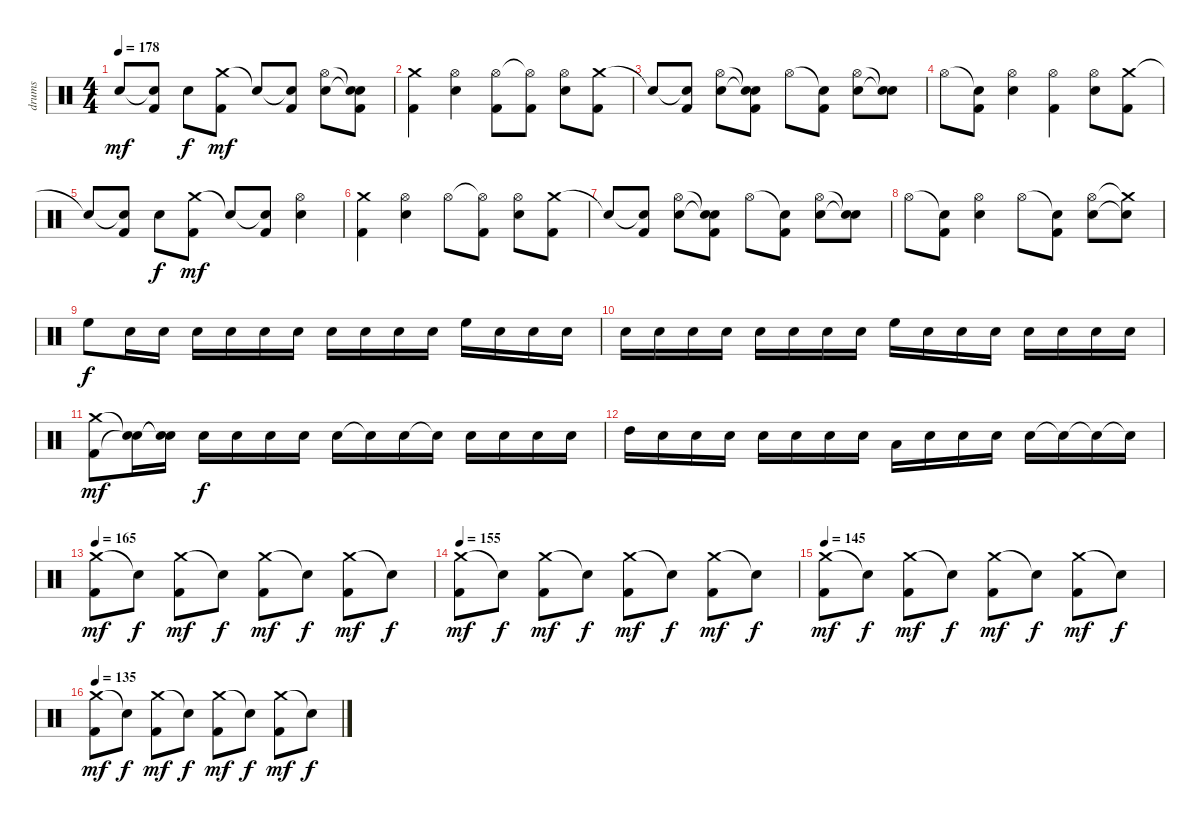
\track ("drums" "drums") {instrument percussion}
\staff {score}
\articulation defaults
\ts (4 4)
\tempo 178
\clef neutral
\ks aminor "Snare (hit)"{t}.8{dy mf}
("Snare (hit)"{t} "Kick (hit) 2").8 "Snare (hit) 2".8{dy f} ("Crash medium (hit)" "Kick (hit) 2").8{dy mf} "Snare (hit)"{t}.8 ("Snare (hit)"{t} "Kick (hit) 2").8 ("Hi-Hat (open)" "Snare (hit) 2").8 ("Snare (hit)"{t} "Snare (hit)"{t} "Kick (hit) 2").8 |
("Crash medium (hit)" "Kick (hit) 2").4 ("Hi-Hat (open)" "Snare (hit) 2").4 ("Hi-Hat (open)" "Kick (hit) 2").8 ("Hi-Hat (open)"{t} "Kick (hit) 2").8 ("Hi-Hat (open)" "Snare (hit) 2").8 ("Crash medium (hit)" "Kick (hit) 2").8 |
"Snare (hit)"{t}.8 ("Snare (hit)"{t} "Kick (hit) 2").8 ("Hi-Hat (open)" "Snare (hit) 2").8 ("Snare (hit)"{t} "Snare (hit)"{t} "Kick (hit) 2").8 "Hi-Hat (open)".8 ("Snare (hit)"{t} "Kick (hit) 2").8 ("Hi-Hat (open)" "Snare (hit) 2").8 ("Snare (hit)"{t} "Snare (hit)"{t}).8 |
"Hi-Hat (open)".8 ("Snare (hit)"{t} "Kick (hit) 2").8 ("Hi-Hat (open)" "Snare (hit) 2").4 ("Hi-Hat (open)" "Kick (hit) 2").4 ("Hi-Hat (open)" "Snare (hit) 2").8 ("Crash medium (hit)" "Kick (hit) 2").8 |
"Snare (hit)"{t}.8 ("Snare (hit)"{t} "Kick (hit) 2").8 "Snare (hit) 2".8{dy f} ("Crash medium (hit)" "Kick (hit) 2").8{dy mf} "Snare (hit)"{t}.8 ("Snare (hit)"{t} "Kick (hit) 2").8 ("Hi-Hat (open)" "Snare (hit) 2").4 |
("Crash medium (hit)" "Kick (hit) 2").4 ("Hi-Hat (open)" "Snare (hit) 2").4 "Hi-Hat (open)".8 ("Hi-Hat (open)"{t} "Kick (hit) 2").8 ("Hi-Hat (open)" "Snare (hit) 2").8 ("Crash medium (hit)" "Kick (hit) 2").8 |
"Snare (hit)"{t}.8 ("Snare (hit)"{t} "Kick (hit) 2").8 ("Hi-Hat (open)" "Snare (hit) 2").8 ("Snare (hit)"{t} "Snare (hit)"{t} "Kick (hit) 2").8 "Hi-Hat (open)".8 ("Snare (hit)"{t} "Kick (hit) 2").8 ("Hi-Hat (open)" "Snare (hit) 2").8 ("Snare (hit)"{t} "Snare (hit)"{t}).8 |
"Hi-Hat (open)".8 ("Snare (hit)"{t} "Kick (hit) 2").8 ("Hi-Hat (open)" "Snare (hit) 2").4 "Hi-Hat (open)".8 ("Snare (hit)"{t} "Kick (hit) 2").8 ("Hi-Hat (open)" "Snare (hit) 2").8 ("Crash medium (hit)"{t} "Snare (hit)"{t}).8 |
"High Floor Tom (hit)".8{dy f} "Snare (hit) 2".16 "Snare (hit) 2".16 "Snare (hit) 2".16 "Snare (hit) 2".16 "Snare (hit) 2".16 "Snare (hit) 2".16 "Snare (hit) 2".16 "Snare (hit) 2".16 "Snare (hit) 2".16 "Snare (hit) 2".16 "High Floor Tom (hit)".16 "Snare (hit) 2".16 "Snare (hit) 2".16 "Snare (hit) 2".16 |
"Snare (hit) 2".16 "Snare (hit) 2".16 "Snare (hit) 2".16 "Snare (hit) 2".16 "Snare (hit) 2".16 "Snare (hit) 2".16 "Snare (hit) 2".16 "Snare (hit) 2".16 "High Floor Tom (hit)".16 "Snare (hit) 2".16 "Snare (hit) 2".16 "Snare (hit) 2".16 "Snare (hit) 2".16 "Snare (hit) 2".16 "Snare (hit) 2".16 "Snare (hit) 2".16 |
("Crash medium (hit)" "Kick (hit) 2").8{dy mf} ("Snare (hit)"{t} "Snare (hit)"{t}).16 ("Snare (hit)"{t} "Snare (hit)"{t}).16 "Snare (hit) 2".16{dy f} "Snare (hit) 2".16 "Snare (hit) 2".16 "Snare (hit) 2".16 "Snare (hit) 2".16 "Snare (hit) 2"{t}.16 "Snare (hit) 2".16 "Snare (hit) 2"{t}.16 "Snare (hit) 2".16 "Snare (hit) 2".16 "Snare (hit) 2".16 "Snare (hit) 2".16 |
"High Tom (hit)".16 "Snare (hit) 2".16 "Snare (hit) 2".16 "Snare (hit) 2".16 "Snare (hit) 2".16 "Snare (hit) 2".16 "Snare (hit) 2".16 "Snare (hit) 2".16 "Low Tom (hit)".16 "Snare (hit) 2".16 "Snare (hit) 2".16 "Snare (hit) 2".16 "Snare (hit) 2".16 "Snare (hit) 2"{t}.16 "Snare (hit) 2"{t}.16 "Snare (hit) 2"{t}.16 |
\tempo 165
("Crash medium (hit)" "Kick (hit) 2").8{dy mf} "Snare (hit)"{t}.8{dy f} ("Crash medium (hit)" "Kick (hit) 2").8{dy mf} "Snare (hit)"{t}.8{dy f} ("Crash medium (hit)" "Kick (hit) 2").8{dy mf} "Snare (hit)"{t}.8{dy f} ("Crash medium (hit)" "Kick (hit) 2").8{dy mf} "Snare (hit)"{t}.8{dy f} |
\tempo 155
("Crash medium (hit)" "Kick (hit) 2").8{dy mf} "Snare (hit)"{t}.8{dy f} ("Crash medium (hit)" "Kick (hit) 2").8{dy mf} "Snare (hit)"{t}.8{dy f} ("Crash medium (hit)" "Kick (hit) 2").8{dy mf} "Snare (hit)"{t}.8{dy f} ("Crash medium (hit)" "Kick (hit) 2").8{dy mf} "Snare (hit)"{t}.8{dy f} |
\tempo 145
("Crash medium (hit)" "Kick (hit) 2").8{dy mf} "Snare (hit)"{t}.8{dy f} ("Crash medium (hit)" "Kick (hit) 2").8{dy mf} "Snare (hit)"{t}.8{dy f} ("Crash medium (hit)" "Kick (hit) 2").8{dy mf} "Snare (hit)"{t}.8{dy f} ("Crash medium (hit)" "Kick (hit) 2").8{dy mf} "Snare (hit)"{t}.8{dy f} |
\tempo 135
("Crash medium (hit)" "Kick (hit) 2").8{dy mf} "Snare (hit)"{t}.8{dy f} ("Crash medium (hit)" "Kick (hit) 2").8{dy mf} "Snare (hit)"{t}.8{dy f} ("Crash medium (hit)" "Kick (hit) 2").8{dy mf} "Snare (hit)"{t}.8{dy f} ("Crash medium (hit)" "Kick (hit) 2").8{dy mf} "Snare (hit)"{t}.8{dy f}
